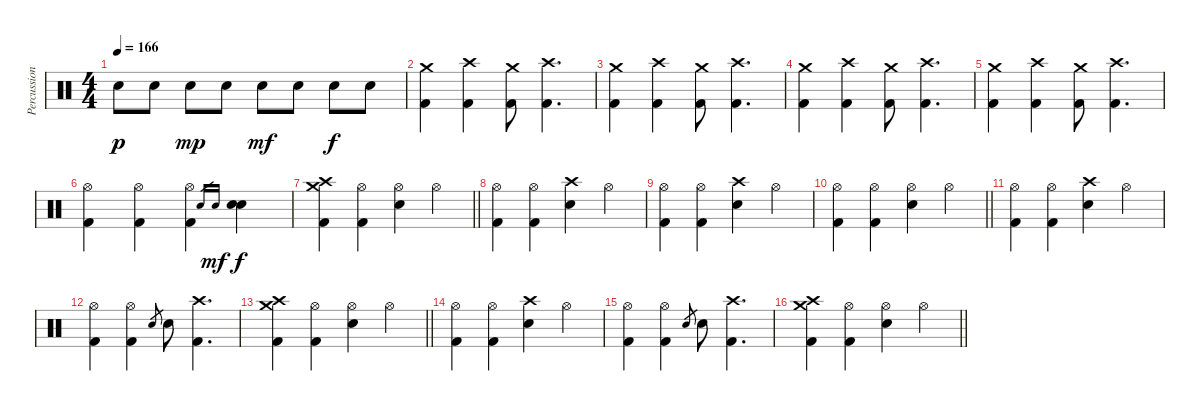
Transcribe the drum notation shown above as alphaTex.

\track ("Percussion" "Percussion") {instrument percussion}
\staff {score}
\articulation defaults
\ts (4 4)
\tempo 166
\clef neutral
\ks c "Electric Snare (hit)".8{dy p} "Electric Snare (hit)".8 "Electric Snare (hit)".8{dy mp} "Electric Snare (hit)".8 "Electric Snare (hit)".8{dy mf} "Electric Snare (hit)".8 "Electric Snare (hit)".8{dy f} "Electric Snare (hit)".8
|
("Crash medium (hit)" "Kick (hit) 2").4 ("Crash high (hit)" "Kick (hit) 2").4 ("Crash medium (hit)" "Kick (hit) 2").8 ("Crash high (hit)" "Kick (hit) 2").4{d} |
("Crash medium (hit)" "Kick (hit) 2").4 ("Crash high (hit)" "Kick (hit) 2").4 ("Crash medium (hit)" "Kick (hit) 2").8 ("Crash high (hit)" "Kick (hit) 2").4{d} |
("Crash medium (hit)" "Kick (hit) 2").4 ("Crash high (hit)" "Kick (hit) 2").4 ("Crash medium (hit)" "Kick (hit) 2").8 ("Crash high (hit)" "Kick (hit) 2").4{d} |
("Crash medium (hit)" "Kick (hit) 2").4 ("Crash high (hit)" "Kick (hit) 2").4 ("Crash medium (hit)" "Kick (hit) 2").8 ("Crash high (hit)" "Kick (hit) 2").4{d} |
("Hi-Hat (open)" "Kick (hit) 2").4 ("Hi-Hat (open)" "Kick (hit) 2").4 ("Hi-Hat (open)" "Kick (hit) 2").4 "Snare (hit) 2".16{gr} "Electric Snare (hit)".16{gr dy mf} ("Snare (hit) 2" "Electric Snare (hit)").4{dy f} |
\barLineRight lightlight
("Crash medium (hit)" "Crash high (hit)" "Kick (hit) 2").4 ("Hi-Hat (open)" "Kick (hit) 2").4 ("Hi-Hat (open)" "Electric Snare (hit)").4 "Hi-Hat (open)".4 |
("Hi-Hat (open)" "Kick (hit) 2").4 ("Hi-Hat (open)" "Kick (hit) 2").4 ("Crash high (hit)" "Electric Snare (hit)").4 "Hi-Hat (open)".4 |
("Hi-Hat (open)" "Kick (hit) 2").4 ("Hi-Hat (open)" "Kick (hit) 2").4 ("Crash high (hit)" "Electric Snare (hit)").4 "Hi-Hat (open)".4 |
\barLineRight lightlight
("Hi-Hat (open)" "Kick (hit) 2").4 ("Hi-Hat (open)" "Kick (hit) 2").4 ("Hi-Hat (open)" "Electric Snare (hit)").4 "Hi-Hat (open)".4 |
("Hi-Hat (open)" "Kick (hit) 2").4 ("Hi-Hat (open)" "Kick (hit) 2").4 ("Crash high (hit)" "Electric Snare (hit)").4 "Hi-Hat (open)".4 |
("Hi-Hat (open)" "Kick (hit) 2").4 ("Hi-Hat (open)" "Kick (hit) 2").4 "Electric Snare (hit)".8{gr} "Electric Snare (hit)".8 ("Crash high (hit)" "Kick (hit) 2").4{d} |
\barLineRight lightlight
("Crash medium (hit)" "Crash high (hit)" "Kick (hit) 2").4 ("Hi-Hat (open)" "Kick (hit) 2").4 ("Hi-Hat (open)" "Electric Snare (hit)").4 "Hi-Hat (open)".4 |
("Hi-Hat (open)" "Kick (hit) 2").4 ("Hi-Hat (open)" "Kick (hit) 2").4 ("Crash high (hit)" "Electric Snare (hit)").4 "Hi-Hat (open)".4 |
("Hi-Hat (open)" "Kick (hit) 2").4 ("Hi-Hat (open)" "Kick (hit) 2").4 "Electric Snare (hit)".8{gr} "Electric Snare (hit)".8 ("Crash high (hit)" "Kick (hit) 2").4{d} |
\barLineRight lightlight
("Crash medium (hit)" "Crash high (hit)" "Kick (hit) 2").4 ("Hi-Hat (open)" "Kick (hit) 2").4 ("Hi-Hat (open)" "Electric Snare (hit)").4 "Hi-Hat (open)".4
